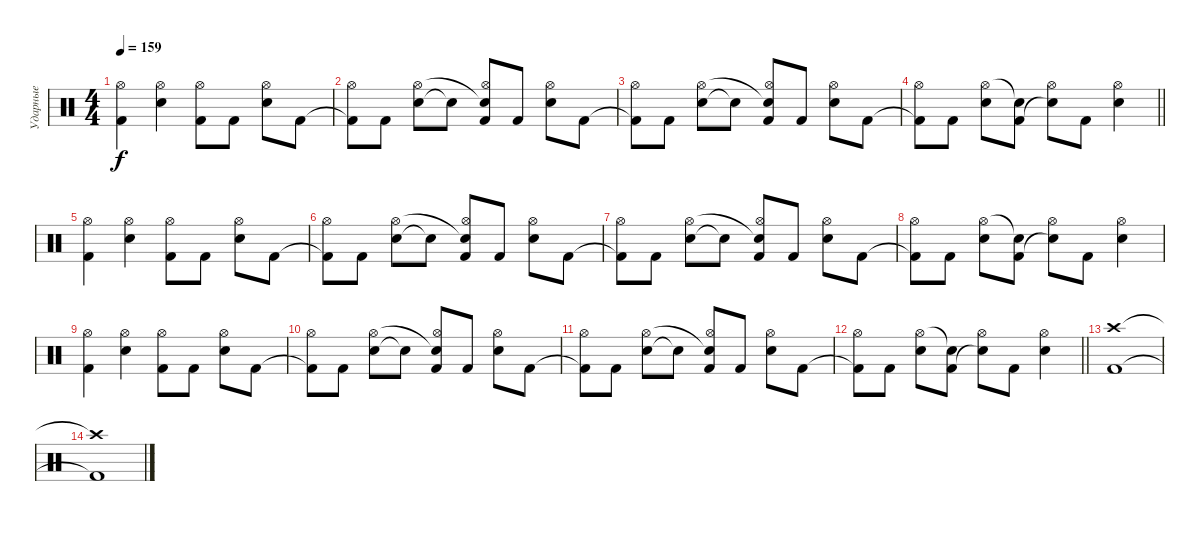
\track ("Ударные" "Ударные") {instrument percussion}
\staff {score}
\articulation defaults
\ts (4 4)
\tempo 159
\clef neutral
\ks c
("Kick (hit) 2" "Hi-Hat (open)").4{dy f} ("Snare (hit) 2" "Hi-Hat (open)").4 ("Kick (hit) 2" "Hi-Hat (open)").8 "Kick (hit) 2".8 ("Snare (hit) 2" "Hi-Hat (open)").8 "Kick (hit) 2".8 |
("Kick (hit) 2"{t} "Hi-Hat (open)").8 "Kick (hit) 2".8 ("Snare (hit) 2" "Hi-Hat (open)").8 "Snare (hit) 2"{t}.8 ("Kick (hit) 2" "Snare (hit) 2"{t} "Hi-Hat (open)").8 "Kick (hit) 2".8 ("Snare (hit) 2" "Hi-Hat (open)").8 "Kick (hit) 2".8 |
("Kick (hit) 2"{t} "Hi-Hat (open)").8 "Kick (hit) 2".8 ("Snare (hit) 2" "Hi-Hat (open)").8 "Snare (hit) 2"{t}.8 ("Kick (hit) 2" "Snare (hit) 2"{t} "Hi-Hat (open)").8 "Kick (hit) 2".8 ("Snare (hit) 2" "Hi-Hat (open)").8 "Kick (hit) 2".8 |
\barLineRight lightlight
("Kick (hit) 2"{t} "Hi-Hat (open)").8 "Kick (hit) 2".8 ("Snare (hit) 2" "Hi-Hat (open)").8 ("Kick (hit) 2" "Snare (hit) 2"{t}).8 ("Snare (hit) 2"{t} "Hi-Hat (open)").8 "Kick (hit) 2".8 ("Snare (hit) 2" "Hi-Hat (open)").4 |
("Kick (hit) 2" "Hi-Hat (open)").4 ("Snare (hit) 2" "Hi-Hat (open)").4 ("Kick (hit) 2" "Hi-Hat (open)").8 "Kick (hit) 2".8 ("Snare (hit) 2" "Hi-Hat (open)").8 "Kick (hit) 2".8 |
("Kick (hit) 2"{t} "Hi-Hat (open)").8 "Kick (hit) 2".8 ("Snare (hit) 2" "Hi-Hat (open)").8 "Snare (hit) 2"{t}.8 ("Kick (hit) 2" "Snare (hit) 2"{t} "Hi-Hat (open)").8 "Kick (hit) 2".8 ("Snare (hit) 2" "Hi-Hat (open)").8 "Kick (hit) 2".8 |
("Kick (hit) 2"{t} "Hi-Hat (open)").8 "Kick (hit) 2".8 ("Snare (hit) 2" "Hi-Hat (open)").8 "Snare (hit) 2"{t}.8 ("Kick (hit) 2" "Snare (hit) 2"{t} "Hi-Hat (open)").8 "Kick (hit) 2".8 ("Snare (hit) 2" "Hi-Hat (open)").8 "Kick (hit) 2".8 |
("Kick (hit) 2"{t} "Hi-Hat (open)").8 "Kick (hit) 2".8 ("Snare (hit) 2" "Hi-Hat (open)").8 ("Kick (hit) 2" "Snare (hit) 2"{t}).8 ("Snare (hit) 2"{t} "Hi-Hat (open)").8 "Kick (hit) 2".8 ("Snare (hit) 2" "Hi-Hat (open)").4 |
("Kick (hit) 2" "Hi-Hat (open)").4 ("Snare (hit) 2" "Hi-Hat (open)").4 ("Kick (hit) 2" "Hi-Hat (open)").8 "Kick (hit) 2".8 ("Snare (hit) 2" "Hi-Hat (open)").8 "Kick (hit) 2".8 |
("Kick (hit) 2"{t} "Hi-Hat (open)").8 "Kick (hit) 2".8 ("Snare (hit) 2" "Hi-Hat (open)").8 "Snare (hit) 2"{t}.8 ("Kick (hit) 2" "Snare (hit) 2"{t} "Hi-Hat (open)").8 "Kick (hit) 2".8 ("Snare (hit) 2" "Hi-Hat (open)").8 "Kick (hit) 2".8 |
("Kick (hit) 2"{t} "Hi-Hat (open)").8 "Kick (hit) 2".8 ("Snare (hit) 2" "Hi-Hat (open)").8 "Snare (hit) 2"{t}.8 ("Kick (hit) 2" "Snare (hit) 2"{t} "Hi-Hat (open)").8 "Kick (hit) 2".8 ("Snare (hit) 2" "Hi-Hat (open)").8 "Kick (hit) 2".8 |
\barLineRight lightlight
("Kick (hit) 2"{t} "Hi-Hat (open)").8 "Kick (hit) 2".8 ("Snare (hit) 2" "Hi-Hat (open)").8 ("Kick (hit) 2" "Snare (hit) 2"{t}).8 ("Snare (hit) 2"{t} "Hi-Hat (open)").8 "Kick (hit) 2".8 ("Snare (hit) 2" "Hi-Hat (open)").4 |
("Kick (hit) 2" "Crash high (hit)").1 |
("Kick (hit) 2"{t} "Crash high (hit)"{t}).1
